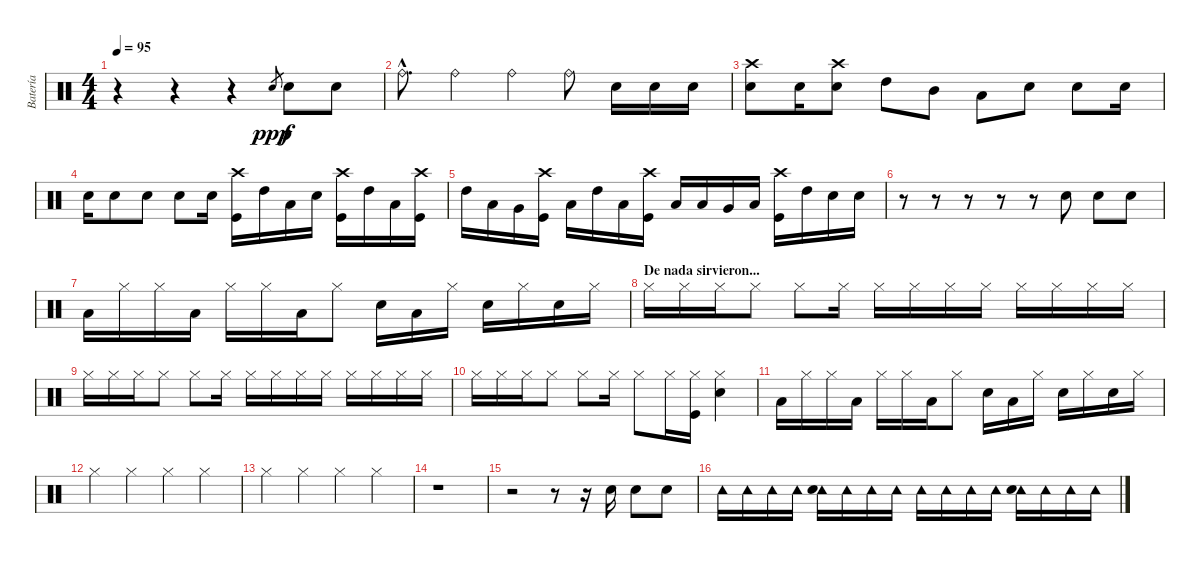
\track ("Batería" "Batería") {instrument percussion}
\staff {score}
\articulation defaults
\ts (4 4)
\tempo 95
\clef neutral
\ks c
r.4{dy f} r.4 r.4 "Snare (hit) 2".8{gr dy ppp} "Snare (hit) 2".8{dy f} "Snare (hit) 2".8 |
"Ride (bell)"{hac}.8{d} "Ride (bell)".4 "Ride (bell)".4 "Ride (bell)".8 "Snare (hit) 2".16 "Snare (hit) 2".16 "Snare (hit) 2".16 |
("Snare (hit) 2" "Crash high (hit)").8 "Snare (hit) 2".16 ("Snare (hit) 2" "Crash high (hit)").8 "High Tom (hit)".8 "Mid Tom (hit)".8 "Low Tom (hit)".8 "Snare (hit) 2".8 "Snare (hit) 2".8 "Snare (hit) 2".16 |
"Snare (hit) 2".16 "Snare (hit) 2".8 "Snare (hit) 2".8 "Snare (hit) 2".8 "Snare (hit) 2".16 ("Crash high (hit)" "Kick (hit)").16 "High Tom (hit)".16 "Low Floor Tom (hit)".16 "Snare (hit) 2".16 ("Crash high (hit)" "Kick (hit)").16 "High Tom (hit)".16 "Low Tom (hit)".16 ("Kick (hit)" "Crash high (hit)").16 |
"High Tom (hit)".16 "Low Tom (hit)".16 "Very Low Tom (hit)".16 ("Crash high (hit)" "Kick (hit)").16 "Low Floor Tom (hit)".16 "High Tom (hit)".16 "Low Tom (hit)".16 ("Crash high (hit)" "Kick (hit)").16 "Low Floor Tom (hit)".16 "Low Tom (hit)".16 "Very Low Tom (hit)".16 "Low Floor Tom (hit)".16 ("Kick (hit)" "Crash high (hit)").16 "High Tom (hit)".16 "Snare (hit) 2".16 "Snare (hit) 2".16 |
r.8 r.8 r.8 r.8 r.8 "Snare (hit) 2".8 "Snare (hit) 2".8 "Snare (hit) 2".8 |
"Low Floor Tom (hit)".16 "Hi-Hat (closed)".16 "Hi-Hat (closed)".16 "Low Floor Tom (hit)".16 "Hi-Hat (closed)".16 "Hi-Hat (closed)".16 "Low Floor Tom (hit)".16 "Hi-Hat (closed)".8 "Snare (hit) 2".16 "Low Floor Tom (hit)".16 "Hi-Hat (closed)".16 "Snare (hit) 2".16 "Hi-Hat (closed)".16 "Snare (hit) 2".16 "Hi-Hat (closed)".16 |
\section ("" "De nada sirvieron...")
"Hi-Hat (closed)".16 "Hi-Hat (closed)".16 "Hi-Hat (closed)".16 "Hi-Hat (closed)".8 "Hi-Hat (closed)".8 "Hi-Hat (closed)".16 "Hi-Hat (closed)".16 "Hi-Hat (closed)".16 "Hi-Hat (closed)".16 "Hi-Hat (closed)".16 "Hi-Hat (closed)".16 "Hi-Hat (closed)".16 "Hi-Hat (closed)".16 "Hi-Hat (closed)".16 |
"Hi-Hat (closed)".16 "Hi-Hat (closed)".16 "Hi-Hat (closed)".16 "Hi-Hat (closed)".8 "Hi-Hat (closed)".8 "Hi-Hat (closed)".16 "Hi-Hat (closed)".16 "Hi-Hat (closed)".16 "Hi-Hat (closed)".16 "Hi-Hat (closed)".16 "Hi-Hat (closed)".16 "Hi-Hat (closed)".16 "Hi-Hat (closed)".16 "Hi-Hat (closed)".16 |
"Hi-Hat (closed)".16 "Hi-Hat (closed)".16 "Hi-Hat (closed)".16 "Hi-Hat (closed)".8 "Hi-Hat (closed)".8 "Hi-Hat (closed)".16 "Hi-Hat (closed)".8 "Hi-Hat (closed)".16 ("Hi-Hat (closed)" "Kick (hit)").16 ("Hi-Hat (closed)" "Snare (hit) 2").4 |
"Low Floor Tom (hit)".16 "Hi-Hat (closed)".16 "Hi-Hat (closed)".16 "Low Floor Tom (hit)".16 "Hi-Hat (closed)".16 "Hi-Hat (closed)".16 "Low Floor Tom (hit)".16 "Hi-Hat (closed)".8 "Snare (hit) 2".16 "Low Floor Tom (hit)".16 "Hi-Hat (closed)".16 "Snare (hit) 2".16 "Hi-Hat (closed)".16 "Snare (hit) 2".16 "Hi-Hat (closed)".16 |
"Hi-Hat (closed)".4 "Hi-Hat (closed)".4 "Hi-Hat (closed)".4 "Hi-Hat (closed)".4 |
"Hi-Hat (closed)".4 "Hi-Hat (closed)".4 "Hi-Hat (closed)".4 "Hi-Hat (closed)".4 |
r.1 |
r.2 r.8 r.16 "Snare (hit) 2".16 "Snare (hit) 2".8 "Snare (hit) 2".8 |
"Tambourine (hit)".16 "Tambourine (hit)".16 "Tambourine (hit)".16 "Tambourine (hit)".16 ("Tambourine (hit)" "Snare (hit) 2").16 "Tambourine (hit)".16 "Tambourine (hit)".16 "Tambourine (hit)".16 "Tambourine (hit)".16 "Tambourine (hit)".16 "Tambourine (hit)".16 "Tambourine (hit)".16 ("Tambourine (hit)" "Snare (hit) 2").16 "Tambourine (hit)".16 "Tambourine (hit)".16 "Tambourine (hit)".16
